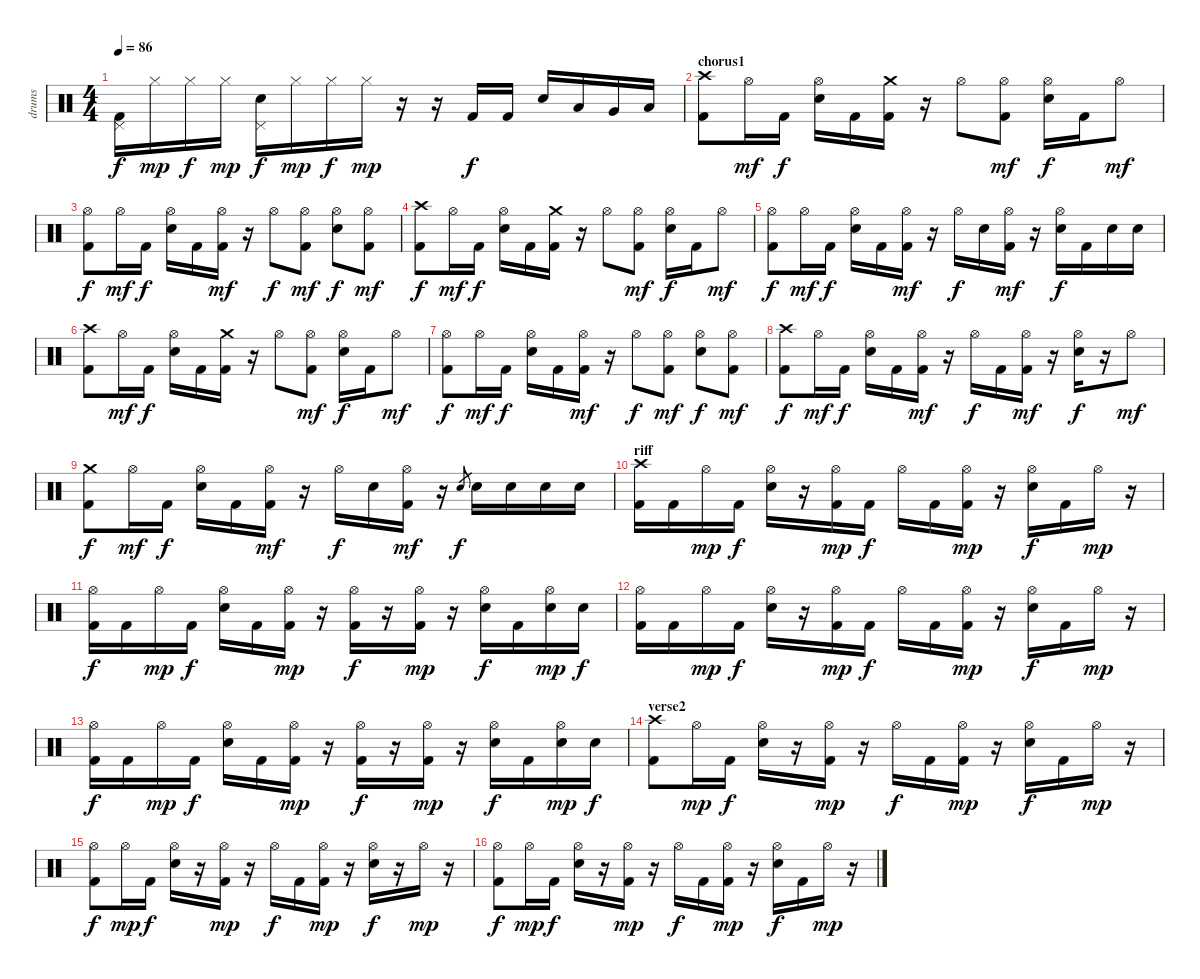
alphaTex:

\track ("drums" "drums") {instrument percussion}
\staff {score}
\articulation defaults
\ts (4 4)
\tempo 86
\clef neutral
\ks c
("Kick (hit) 2" "Pedal Hi-Hat (hit)").16{dy f} "Hi-Hat (closed)".16{dy mp} "Hi-Hat (closed)".16{dy f} "Hi-Hat (closed)".16{dy mp} ("Snare (hit) 2" "Pedal Hi-Hat (hit)").16{dy f} "Hi-Hat (closed)".16{dy mp} "Hi-Hat (closed)".16{dy f} "Hi-Hat (closed)".16{dy mp} r.16 r.16 "Kick (hit) 2".16{dy f} "Kick (hit) 2".16 "Electric Snare (hit)".16 "Low Tom (hit)".16 "Very Low Tom (hit)".16 "Low Floor Tom (hit)".16 |
\section ("" "chorus1")
("Kick (hit) 2" "Crash high (hit)").8 "Hi-Hat (open)".16{dy mf} "Kick (hit) 2".16{dy f} ("Electric Snare (hit)" "Hi-Hat (open)").16 "Kick (hit) 2".16 ("Kick (hit) 2" "Crash medium (hit)").16 r.16 "Hi-Hat (open)".8 ("Kick (hit) 2" "Hi-Hat (open)").8{dy mf} ("Electric Snare (hit)" "Hi-Hat (open)").16{dy f} "Kick (hit) 2".16 "Hi-Hat (open)".8{dy mf} |
("Kick (hit) 2" "Hi-Hat (open)").8{dy f} "Hi-Hat (open)".16{dy mf} "Kick (hit) 2".16{dy f} ("Electric Snare (hit)" "Hi-Hat (open)").16 "Kick (hit) 2".16 ("Kick (hit) 2" "Hi-Hat (open)").16{dy mf} r.16 "Hi-Hat (open)".8{dy f} ("Kick (hit) 2" "Hi-Hat (open)").8{dy mf} ("Electric Snare (hit)" "Hi-Hat (open)").8{dy f} ("Kick (hit) 2" "Hi-Hat (open)").8{dy mf} |
("Kick (hit) 2" "Crash high (hit)").8{dy f} "Hi-Hat (open)".16{dy mf} "Kick (hit) 2".16{dy f} ("Electric Snare (hit)" "Hi-Hat (open)").16 "Kick (hit) 2".16 ("Kick (hit) 2" "Crash medium (hit)").16 r.16 "Hi-Hat (open)".8 ("Kick (hit) 2" "Hi-Hat (open)").8{dy mf} ("Electric Snare (hit)" "Hi-Hat (open)").16{dy f} "Kick (hit) 2".16 "Hi-Hat (open)".8{dy mf} |
("Kick (hit) 2" "Hi-Hat (open)").8{dy f} "Hi-Hat (open)".16{dy mf} "Kick (hit) 2".16{dy f} ("Electric Snare (hit)" "Hi-Hat (open)").16 "Kick (hit) 2".16 ("Kick (hit) 2" "Hi-Hat (open)").16{dy mf} r.16 "Hi-Hat (open)".16{dy f} "Electric Snare (hit)".16 ("Kick (hit) 2" "Hi-Hat (open)").16{dy mf} r.16 ("Electric Snare (hit)" "Hi-Hat (open)").16{dy f} "Kick (hit) 2".16 "Electric Snare (hit)".16 "Electric Snare (hit)".16 |
("Kick (hit) 2" "Crash high (hit)").8 "Hi-Hat (open)".16{dy mf} "Kick (hit) 2".16{dy f} ("Electric Snare (hit)" "Hi-Hat (open)").16 "Kick (hit) 2".16 ("Kick (hit) 2" "Crash medium (hit)").16 r.16 "Hi-Hat (open)".8 ("Kick (hit) 2" "Hi-Hat (open)").8{dy mf} ("Electric Snare (hit)" "Hi-Hat (open)").16{dy f} "Kick (hit) 2".16 "Hi-Hat (open)".8{dy mf} |
("Kick (hit) 2" "Hi-Hat (open)").8{dy f} "Hi-Hat (open)".16{dy mf} "Kick (hit) 2".16{dy f} ("Electric Snare (hit)" "Hi-Hat (open)").16 "Kick (hit) 2".16 ("Kick (hit) 2" "Hi-Hat (open)").16{dy mf} r.16 "Hi-Hat (open)".8{dy f} ("Kick (hit) 2" "Hi-Hat (open)").8{dy mf} ("Electric Snare (hit)" "Hi-Hat (open)").8{dy f} ("Kick (hit) 2" "Hi-Hat (open)").8{dy mf} |
("Kick (hit) 2" "Crash high (hit)").8{dy f} "Hi-Hat (open)".16{dy mf} "Kick (hit) 2".16{dy f} ("Electric Snare (hit)" "Hi-Hat (open)").16 "Kick (hit) 2".16 ("Kick (hit) 2" "Hi-Hat (open)").16{dy mf} r.16 "Hi-Hat (open)".16{dy f} "Kick (hit) 2".16 ("Kick (hit) 2" "Hi-Hat (open)").16{dy mf} r.16 ("Electric Snare (hit)" "Hi-Hat (open)").16{dy f} r.16 "Hi-Hat (open)".8{dy mf} |
("Kick (hit) 2" "Crash medium (hit)").8{dy f} "Hi-Hat (open)".16{dy mf} "Kick (hit) 2".16{dy f} ("Electric Snare (hit)" "Hi-Hat (open)").16 "Kick (hit) 2".16 ("Kick (hit) 2" "Hi-Hat (open)").16{dy mf} r.16 "Hi-Hat (open)".16{dy f} "Electric Snare (hit)".16 ("Kick (hit) 2" "Hi-Hat (open)").16{dy mf} r.16 "Electric Snare (hit)".8{gr dy f} "Electric Snare (hit)".16 "Electric Snare (hit)".16 "Electric Snare (hit)".16 "Electric Snare (hit)".16 |
\section ("" "riff")
("Kick (hit) 2" "Crash high (hit)").16 "Kick (hit) 2".16 "Hi-Hat (open)".16{dy mp} "Kick (hit) 2".16{dy f} ("Electric Snare (hit)" "Hi-Hat (open)").16 r.16 ("Kick (hit) 2" "Hi-Hat (open)").16{dy mp} "Kick (hit) 2".16{dy f} "Hi-Hat (open)".16 "Kick (hit) 2".16 ("Kick (hit) 2" "Hi-Hat (open)").16{dy mp} r.16 ("Electric Snare (hit)" "Hi-Hat (open)").16{dy f} "Kick (hit) 2".16 "Hi-Hat (open)".16{dy mp} r.16 |
("Kick (hit) 2" "Hi-Hat (open)").16{dy f} "Kick (hit) 2".16 "Hi-Hat (open)".16{dy mp} "Kick (hit) 2".16{dy f} ("Electric Snare (hit)" "Hi-Hat (open)").16 "Kick (hit) 2".16 ("Kick (hit) 2" "Hi-Hat (open)").16{dy mp} r.16 ("Kick (hit) 2" "Hi-Hat (open)").16{dy f} r.16 ("Kick (hit) 2" "Hi-Hat (open)").16{dy mp} r.16 ("Electric Snare (hit)" "Hi-Hat (open)").16{dy f} "Kick (hit) 2".16 ("Electric Snare (hit)" "Hi-Hat (open)").16{dy mp} "Electric Snare (hit)".16{dy f} |
("Kick (hit) 2" "Hi-Hat (open)").16 "Kick (hit) 2".16 "Hi-Hat (open)".16{dy mp} "Kick (hit) 2".16{dy f} ("Electric Snare (hit)" "Hi-Hat (open)").16 r.16 ("Kick (hit) 2" "Hi-Hat (open)").16{dy mp} "Kick (hit) 2".16{dy f} "Hi-Hat (open)".16 "Kick (hit) 2".16 ("Kick (hit) 2" "Hi-Hat (open)").16{dy mp} r.16 ("Electric Snare (hit)" "Hi-Hat (open)").16{dy f} "Kick (hit) 2".16 "Hi-Hat (open)".16{dy mp} r.16 |
("Kick (hit) 2" "Hi-Hat (open)").16{dy f} "Kick (hit) 2".16 "Hi-Hat (open)".16{dy mp} "Kick (hit) 2".16{dy f} ("Electric Snare (hit)" "Hi-Hat (open)").16 "Kick (hit) 2".16 ("Kick (hit) 2" "Hi-Hat (open)").16{dy mp} r.16 ("Kick (hit) 2" "Hi-Hat (open)").16{dy f} r.16 ("Kick (hit) 2" "Hi-Hat (open)").16{dy mp} r.16 ("Electric Snare (hit)" "Hi-Hat (open)").16{dy f} "Kick (hit) 2".16 ("Electric Snare (hit)" "Hi-Hat (open)").16{dy mp} "Electric Snare (hit)".16{dy f} |
\section ("" "verse2")
("Kick (hit) 2" "Crash high (hit)").8 "Hi-Hat (open)".16{dy mp} "Kick (hit) 2".16{dy f} ("Electric Snare (hit)" "Hi-Hat (open)").16 r.16 ("Kick (hit) 2" "Hi-Hat (open)").16{dy mp} r.16 "Hi-Hat (open)".16{dy f} "Kick (hit) 2".16 ("Kick (hit) 2" "Hi-Hat (open)").16{dy mp} r.16 ("Electric Snare (hit)" "Hi-Hat (open)").16{dy f} "Kick (hit) 2".16 "Hi-Hat (open)".16{dy mp} r.16 |
("Kick (hit) 2" "Hi-Hat (open)").8{dy f} "Hi-Hat (open)".16{dy mp} "Kick (hit) 2".16{dy f} ("Electric Snare (hit)" "Hi-Hat (open)").16 r.16 ("Kick (hit) 2" "Hi-Hat (open)").16{dy mp} r.16 "Hi-Hat (open)".16{dy f} "Kick (hit) 2".16 ("Kick (hit) 2" "Hi-Hat (open)").16{dy mp} r.16 ("Electric Snare (hit)" "Hi-Hat (open)").16{dy f} r.16 "Hi-Hat (open)".16{dy mp} r.16 |
("Kick (hit) 2" "Hi-Hat (open)").8{dy f} "Hi-Hat (open)".16{dy mp} "Kick (hit) 2".16{dy f} ("Electric Snare (hit)" "Hi-Hat (open)").16 r.16 ("Kick (hit) 2" "Hi-Hat (open)").16{dy mp} r.16 "Hi-Hat (open)".16{dy f} "Kick (hit) 2".16 ("Kick (hit) 2" "Hi-Hat (open)").16{dy mp} r.16 ("Electric Snare (hit)" "Hi-Hat (open)").16{dy f} "Kick (hit) 2".16 "Hi-Hat (open)".16{dy mp} r.16
